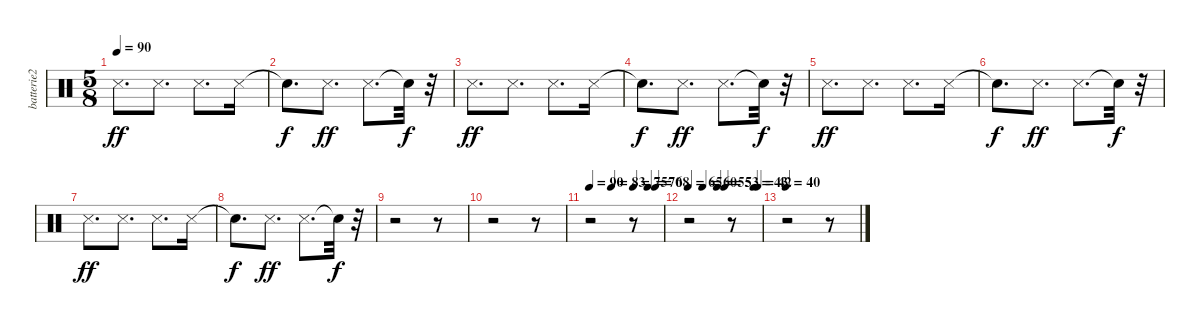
\track ("batterie2" "batterie2") {instrument percussion}
\staff {score}
\articulation defaults
\ts (5 8)
\tempo 90
\clef neutral
\ks c "Snare (side stick) 3".8{d dy ff} "Snare (side stick) 3".8{d} "Snare (side stick) 3".8{d} "Snare (side stick) 3".16
|
"Snare (hit)"{t}.8{d dy f} "Snare (side stick) 3".8{d dy ff} "Snare (side stick) 3".8{d} "Snare (hit)"{t}.32{dy f} r.32 |
"Snare (side stick) 3".8{d dy ff} "Snare (side stick) 3".8{d} "Snare (side stick) 3".8{d} "Snare (side stick) 3".16 |
"Snare (hit)"{t}.8{d dy f} "Snare (side stick) 3".8{d dy ff} "Snare (side stick) 3".8{d} "Snare (hit)"{t}.32{dy f} r.32 |
"Snare (side stick) 3".8{d dy ff} "Snare (side stick) 3".8{d} "Snare (side stick) 3".8{d} "Snare (side stick) 3".16 |
"Snare (hit)"{t}.8{d dy f} "Snare (side stick) 3".8{d dy ff} "Snare (side stick) 3".8{d} "Snare (hit)"{t}.32{dy f} r.32 |
"Snare (side stick) 3".8{d dy ff} "Snare (side stick) 3".8{d} "Snare (side stick) 3".8{d} "Snare (side stick) 3".16 |
"Snare (hit)"{t}.8{d dy f} "Snare (side stick) 3".8{d dy ff} "Snare (side stick) 3".8{d} "Snare (hit)"{t}.32{dy f} r.32 |
r.2 r.8 |
r.2 r.8 |
\tempo 90
\tempo (83 0.3)
\tempo (75 0.6)
\tempo (70 0.8)
\tempo (68 0.9)
r.2 r.8 |
\tempo 65
\tempo (60 0.2)
\tempo (55 0.4)
\tempo (53 0.5)
\tempo (43 0.9)
\tempo (42 0.95)
r.2 r.8 |
\tempo 40
r.2 r.8
